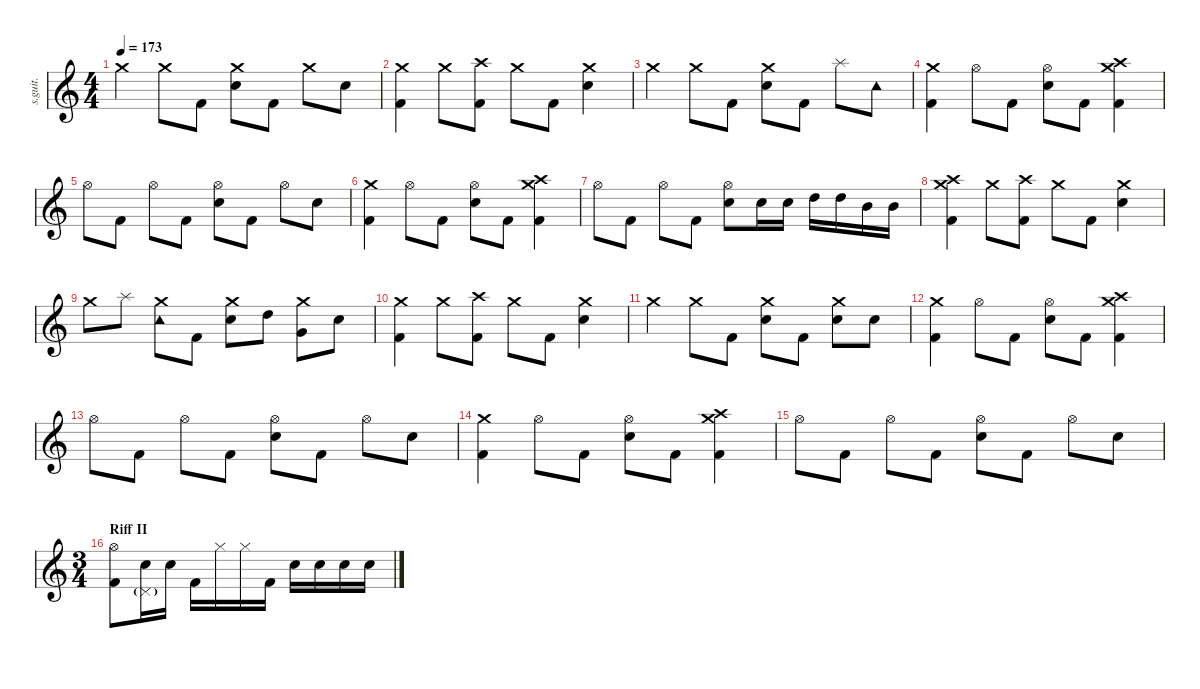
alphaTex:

\defaultSystemsLayout 4
\hideDynamics
\bracketExtendMode nobrackets
\track ("II" "s.guit.") {instrument percussion}
\staff {score}
\articulation defaults
\ts (4 4)
\tempo 173
\clef g2
\ks c "Crash medium (hit)".4{lyrics (0 "") lyrics (1 "") lyrics (2 "") lyrics (3 "") lyrics (4 "") dy mf} "Crash medium (hit)".8{lyrics (0 "") lyrics (1 "") lyrics (2 "") lyrics (3 "") lyrics (4 "")} "Kick (hit) 2".8{lyrics (0 "") lyrics (1 "") lyrics (2 "") lyrics (3 "") lyrics (4 "")}
("Crash medium (hit)" "Snare (hit) 2").8{lyrics (0 "") lyrics (1 "") lyrics (2 "") lyrics (3 "") lyrics (4 "")} "Kick (hit) 2".8{lyrics (0 "") lyrics (1 "") lyrics (2 "") lyrics (3 "") lyrics (4 "")} "Crash medium (hit)".8{lyrics (0 "") lyrics (1 "") lyrics (2 "") lyrics (3 "") lyrics (4 "")} "Snare (hit) 2".8{lyrics (0 "") lyrics (1 "") lyrics (2 "") lyrics (3 "") lyrics (4 "")} |
("Kick (hit) 2" "Crash medium (hit)").4{lyrics (0 "") lyrics (1 "") lyrics (2 "") lyrics (3 "") lyrics (4 "")} "Crash medium (hit)".8{lyrics (0 "") lyrics (1 "") lyrics (2 "") lyrics (3 "") lyrics (4 "")} ("Kick (hit) 2" "Crash high (hit)").8{lyrics (0 "") lyrics (1 "") lyrics (2 "") lyrics (3 "") lyrics (4 "")} "Crash medium (hit)".8{lyrics (0 "") lyrics (1 "") lyrics (2 "") lyrics (3 "") lyrics (4 "")} "Kick (hit) 2".8{lyrics (0 "") lyrics (1 "") lyrics (2 "") lyrics (3 "") lyrics (4 "")} ("Snare (hit) 2" "Crash medium (hit)").4{lyrics (0 "") lyrics (1 "") lyrics (2 "") lyrics (3 "") lyrics (4 "")} |
"Crash medium (hit)".4{lyrics (0 "") lyrics (1 "") lyrics (2 "") lyrics (3 "") lyrics (4 "")} "Crash medium (hit)".8{lyrics (0 "") lyrics (1 "") lyrics (2 "") lyrics (3 "") lyrics (4 "")} "Kick (hit) 2".8{lyrics (0 "") lyrics (1 "") lyrics (2 "") lyrics (3 "") lyrics (4 "")} ("Crash medium (hit)" "Snare (hit) 2").8{lyrics (0 "") lyrics (1 "") lyrics (2 "") lyrics (3 "") lyrics (4 "")} "Kick (hit) 2".8{lyrics (0 "") lyrics (1 "") lyrics (2 "") lyrics (3 "") lyrics (4 "")} "Splash (hit)".8{lyrics (0 "") lyrics (1 "") lyrics (2 "") lyrics (3 "") lyrics (4 "")} "Tambourine (hit)".8{lyrics (0 "") lyrics (1 "") lyrics (2 "") lyrics (3 "") lyrics (4 "")} |
("Kick (hit) 2" "Crash medium (hit)").4{lyrics (0 "") lyrics (1 "") lyrics (2 "") lyrics (3 "") lyrics (4 "")} "Hi-Hat (open)".8{lyrics (0 "") lyrics (1 "") lyrics (2 "") lyrics (3 "") lyrics (4 "")} "Kick (hit) 2".8{lyrics (0 "") lyrics (1 "") lyrics (2 "") lyrics (3 "") lyrics (4 "")} ("Snare (hit) 2" "Hi-Hat (open)").8{lyrics (0 "") lyrics (1 "") lyrics (2 "") lyrics (3 "") lyrics (4 "")} "Kick (hit) 2".8{lyrics (0 "") lyrics (1 "") lyrics (2 "") lyrics (3 "") lyrics (4 "")} ("Kick (hit) 2" "Crash high (hit)" "Crash medium (hit)").4{lyrics (0 "") lyrics (1 "") lyrics (2 "") lyrics (3 "") lyrics (4 "")} |
"Hi-Hat (open)".8{lyrics (0 "") lyrics (1 "") lyrics (2 "") lyrics (3 "") lyrics (4 "")} "Kick (hit) 2".8{lyrics (0 "") lyrics (1 "") lyrics (2 "") lyrics (3 "") lyrics (4 "")} "Hi-Hat (open)".8{lyrics (0 "") lyrics (1 "") lyrics (2 "") lyrics (3 "") lyrics (4 "")} "Kick (hit) 2".8{lyrics (0 "") lyrics (1 "") lyrics (2 "") lyrics (3 "") lyrics (4 "")} ("Hi-Hat (open)" "Snare (hit) 2").8{lyrics (0 "") lyrics (1 "") lyrics (2 "") lyrics (3 "") lyrics (4 "")} "Kick (hit) 2".8{lyrics (0 "") lyrics (1 "") lyrics (2 "") lyrics (3 "") lyrics (4 "")} "Hi-Hat (open)".8{lyrics (0 "") lyrics (1 "") lyrics (2 "") lyrics (3 "") lyrics (4 "")} "Snare (hit) 2".8{lyrics (0 "") lyrics (1 "") lyrics (2 "") lyrics (3 "") lyrics (4 "")} |
("Kick (hit) 2" "Crash medium (hit)").4{lyrics (0 "") lyrics (1 "") lyrics (2 "") lyrics (3 "") lyrics (4 "")} "Hi-Hat (open)".8{lyrics (0 "") lyrics (1 "") lyrics (2 "") lyrics (3 "") lyrics (4 "")} "Kick (hit) 2".8{lyrics (0 "") lyrics (1 "") lyrics (2 "") lyrics (3 "") lyrics (4 "")} ("Snare (hit) 2" "Hi-Hat (open)").8{lyrics (0 "") lyrics (1 "") lyrics (2 "") lyrics (3 "") lyrics (4 "")} "Kick (hit) 2".8{lyrics (0 "") lyrics (1 "") lyrics (2 "") lyrics (3 "") lyrics (4 "")} ("Kick (hit) 2" "Crash high (hit)" "Crash medium (hit)").4{lyrics (0 "") lyrics (1 "") lyrics (2 "") lyrics (3 "") lyrics (4 "")} |
"Hi-Hat (open)".8{lyrics (0 "") lyrics (1 "") lyrics (2 "") lyrics (3 "") lyrics (4 "")} "Kick (hit) 2".8{lyrics (0 "") lyrics (1 "") lyrics (2 "") lyrics (3 "") lyrics (4 "")} "Hi-Hat (open)".8{lyrics (0 "") lyrics (1 "") lyrics (2 "") lyrics (3 "") lyrics (4 "")} "Kick (hit) 2".8{lyrics (0 "") lyrics (1 "") lyrics (2 "") lyrics (3 "") lyrics (4 "")} ("Hi-Hat (open)" "Snare (hit) 2").8{lyrics (0 "") lyrics (1 "") lyrics (2 "") lyrics (3 "") lyrics (4 "")} "Snare (hit) 2".16{lyrics (0 "") lyrics (1 "") lyrics (2 "") lyrics (3 "") lyrics (4 "")} "Snare (hit) 2".16{lyrics (0 "") lyrics (1 "") lyrics (2 "") lyrics (3 "") lyrics (4 "")} "High Tom (hit)".16{lyrics (0 "") lyrics (1 "") lyrics (2 "") lyrics (3 "") lyrics (4 "")} "High Tom (hit)".16{lyrics (0 "") lyrics (1 "") lyrics (2 "") lyrics (3 "") lyrics (4 "")} "Mid Tom (hit)".16{lyrics (0 "") lyrics (1 "") lyrics (2 "") lyrics (3 "") lyrics (4 "")} "Mid Tom (hit)".16{lyrics (0 "") lyrics (1 "") lyrics (2 "") lyrics (3 "") lyrics (4 "")} |
("Kick (hit) 2" "Crash high (hit)" "Crash medium (hit)").4{lyrics (0 "") lyrics (1 "") lyrics (2 "") lyrics (3 "") lyrics (4 "")} "Crash medium (hit)".8{lyrics (0 "") lyrics (1 "") lyrics (2 "") lyrics (3 "") lyrics (4 "")} ("Kick (hit) 2" "Crash high (hit)").8{lyrics (0 "") lyrics (1 "") lyrics (2 "") lyrics (3 "") lyrics (4 "")} "Crash medium (hit)".8{lyrics (0 "") lyrics (1 "") lyrics (2 "") lyrics (3 "") lyrics (4 "")} "Kick (hit) 2".8{lyrics (0 "") lyrics (1 "") lyrics (2 "") lyrics (3 "") lyrics (4 "")} ("Snare (hit) 2" "Crash medium (hit)").4{lyrics (0 "") lyrics (1 "") lyrics (2 "") lyrics (3 "") lyrics (4 "")} |
"Crash medium (hit)".8{lyrics (0 "") lyrics (1 "") lyrics (2 "") lyrics (3 "") lyrics (4 "")} "Splash (hit)".8{lyrics (0 "") lyrics (1 "") lyrics (2 "") lyrics (3 "") lyrics (4 "")} ("Crash medium (hit)" "Tambourine (hit)").8{lyrics (0 "") lyrics (1 "") lyrics (2 "") lyrics (3 "") lyrics (4 "")} "Kick (hit) 2".8{lyrics (0 "") lyrics (1 "") lyrics (2 "") lyrics (3 "") lyrics (4 "")} ("Crash medium (hit)" "Snare (hit) 2").8{lyrics (0 "") lyrics (1 "") lyrics (2 "") lyrics (3 "") lyrics (4 "")} "High Tom (hit)".8{lyrics (0 "") lyrics (1 "") lyrics (2 "") lyrics (3 "") lyrics (4 "")} ("Crash medium (hit)" "Very Low Tom (hit)").8{lyrics (0 "") lyrics (1 "") lyrics (2 "") lyrics (3 "") lyrics (4 "")} "Snare (hit) 2".8{lyrics (0 "") lyrics (1 "") lyrics (2 "") lyrics (3 "") lyrics (4 "")} |
("Kick (hit) 2" "Crash medium (hit)").4{lyrics (0 "") lyrics (1 "") lyrics (2 "") lyrics (3 "") lyrics (4 "")} "Crash medium (hit)".8{lyrics (0 "") lyrics (1 "") lyrics (2 "") lyrics (3 "") lyrics (4 "")} ("Kick (hit) 2" "Crash high (hit)").8{lyrics (0 "") lyrics (1 "") lyrics (2 "") lyrics (3 "") lyrics (4 "")} "Crash medium (hit)".8{lyrics (0 "") lyrics (1 "") lyrics (2 "") lyrics (3 "") lyrics (4 "")} "Kick (hit) 2".8{lyrics (0 "") lyrics (1 "") lyrics (2 "") lyrics (3 "") lyrics (4 "")} ("Snare (hit) 2" "Crash medium (hit)").4{lyrics (0 "") lyrics (1 "") lyrics (2 "") lyrics (3 "") lyrics (4 "")} |
"Crash medium (hit)".4{lyrics (0 "") lyrics (1 "") lyrics (2 "") lyrics (3 "") lyrics (4 "")} "Crash medium (hit)".8{lyrics (0 "") lyrics (1 "") lyrics (2 "") lyrics (3 "") lyrics (4 "")} "Kick (hit) 2".8{lyrics (0 "") lyrics (1 "") lyrics (2 "") lyrics (3 "") lyrics (4 "")} ("Crash medium (hit)" "Snare (hit) 2").8{lyrics (0 "") lyrics (1 "") lyrics (2 "") lyrics (3 "") lyrics (4 "")} "Kick (hit) 2".8{lyrics (0 "") lyrics (1 "") lyrics (2 "") lyrics (3 "") lyrics (4 "")} ("Snare (hit) 2" "Crash medium (hit)").8{lyrics (0 "") lyrics (1 "") lyrics (2 "") lyrics (3 "") lyrics (4 "")} "Snare (hit) 2".8{lyrics (0 "") lyrics (1 "") lyrics (2 "") lyrics (3 "") lyrics (4 "")} |
("Kick (hit) 2" "Crash medium (hit)").4{lyrics (0 "") lyrics (1 "") lyrics (2 "") lyrics (3 "") lyrics (4 "")} "Hi-Hat (open)".8{lyrics (0 "") lyrics (1 "") lyrics (2 "") lyrics (3 "") lyrics (4 "")} "Kick (hit) 2".8{lyrics (0 "") lyrics (1 "") lyrics (2 "") lyrics (3 "") lyrics (4 "")} ("Snare (hit) 2" "Hi-Hat (open)").8{lyrics (0 "") lyrics (1 "") lyrics (2 "") lyrics (3 "") lyrics (4 "")} "Kick (hit) 2".8{lyrics (0 "") lyrics (1 "") lyrics (2 "") lyrics (3 "") lyrics (4 "")} ("Kick (hit) 2" "Crash high (hit)" "Crash medium (hit)").4{lyrics (0 "") lyrics (1 "") lyrics (2 "") lyrics (3 "") lyrics (4 "")} |
"Hi-Hat (open)".8{lyrics (0 "") lyrics (1 "") lyrics (2 "") lyrics (3 "") lyrics (4 "")} "Kick (hit) 2".8{lyrics (0 "") lyrics (1 "") lyrics (2 "") lyrics (3 "") lyrics (4 "")} "Hi-Hat (open)".8{lyrics (0 "") lyrics (1 "") lyrics (2 "") lyrics (3 "") lyrics (4 "")} "Kick (hit) 2".8{lyrics (0 "") lyrics (1 "") lyrics (2 "") lyrics (3 "") lyrics (4 "")} ("Hi-Hat (open)" "Snare (hit) 2").8{lyrics (0 "") lyrics (1 "") lyrics (2 "") lyrics (3 "") lyrics (4 "")} "Kick (hit) 2".8{lyrics (0 "") lyrics (1 "") lyrics (2 "") lyrics (3 "") lyrics (4 "")} "Hi-Hat (open)".8{lyrics (0 "") lyrics (1 "") lyrics (2 "") lyrics (3 "") lyrics (4 "")} "Snare (hit) 2".8{lyrics (0 "") lyrics (1 "") lyrics (2 "") lyrics (3 "") lyrics (4 "")} |
("Kick (hit) 2" "Crash medium (hit)").4{lyrics (0 "") lyrics (1 "") lyrics (2 "") lyrics (3 "") lyrics (4 "")} "Hi-Hat (open)".8{lyrics (0 "") lyrics (1 "") lyrics (2 "") lyrics (3 "") lyrics (4 "")} "Kick (hit) 2".8{lyrics (0 "") lyrics (1 "") lyrics (2 "") lyrics (3 "") lyrics (4 "")} ("Snare (hit) 2" "Hi-Hat (open)").8{lyrics (0 "") lyrics (1 "") lyrics (2 "") lyrics (3 "") lyrics (4 "")} "Kick (hit) 2".8{lyrics (0 "") lyrics (1 "") lyrics (2 "") lyrics (3 "") lyrics (4 "")} ("Kick (hit) 2" "Crash high (hit)" "Crash medium (hit)").4{lyrics (0 "") lyrics (1 "") lyrics (2 "") lyrics (3 "") lyrics (4 "")} |
"Hi-Hat (open)".8{lyrics (0 "") lyrics (1 "") lyrics (2 "") lyrics (3 "") lyrics (4 "")} "Kick (hit) 2".8{lyrics (0 "") lyrics (1 "") lyrics (2 "") lyrics (3 "") lyrics (4 "")} "Hi-Hat (open)".8{lyrics (0 "") lyrics (1 "") lyrics (2 "") lyrics (3 "") lyrics (4 "")} "Kick (hit) 2".8{lyrics (0 "") lyrics (1 "") lyrics (2 "") lyrics (3 "") lyrics (4 "")} ("Snare (hit) 2" "Hi-Hat (open)").8{lyrics (0 "") lyrics (1 "") lyrics (2 "") lyrics (3 "") lyrics (4 "")} "Kick (hit) 2".8{lyrics (0 "") lyrics (1 "") lyrics (2 "") lyrics (3 "") lyrics (4 "")} "Hi-Hat (open)".8{lyrics (0 "") lyrics (1 "") lyrics (2 "") lyrics (3 "") lyrics (4 "")} "Snare (hit) 2".8{lyrics (0 "") lyrics (1 "") lyrics (2 "") lyrics (3 "") lyrics (4 "")} |
\ts (3 4)
\beaming (8 2 2 2 2)
\section ("" "Riff II")
("Kick (hit) 2" "Hi-Hat (open)").8{lyrics (0 "") lyrics (1 "") lyrics (2 "") lyrics (3 "") lyrics (4 "")} ("Snare (hit) 2" "Pedal Hi-Hat (hit)"{g}).16{lyrics (0 "") lyrics (1 "") lyrics (2 "") lyrics (3 "") lyrics (4 "")} "Snare (hit) 2".16{lyrics (0 "") lyrics (1 "") lyrics (2 "") lyrics (3 "") lyrics (4 "")} "Kick (hit) 2".16{lyrics (0 "") lyrics (1 "") lyrics (2 "") lyrics (3 "") lyrics (4 "")} "Hi-Hat (closed)".16{lyrics (0 "") lyrics (1 "") lyrics (2 "") lyrics (3 "") lyrics (4 "")} "Hi-Hat (closed)".16{lyrics (0 "") lyrics (1 "") lyrics (2 "") lyrics (3 "") lyrics (4 "")} "Kick (hit) 2".16{lyrics (0 "") lyrics (1 "") lyrics (2 "") lyrics (3 "") lyrics (4 "")} "Snare (hit) 2".16{lyrics (0 "") lyrics (1 "") lyrics (2 "") lyrics (3 "") lyrics (4 "")} "Snare (hit) 2".16{lyrics (0 "") lyrics (1 "") lyrics (2 "") lyrics (3 "") lyrics (4 "")} "Snare (hit) 2".16{lyrics (0 "") lyrics (1 "") lyrics (2 "") lyrics (3 "") lyrics (4 "")} "Snare (hit) 2".16{lyrics (0 "") lyrics (1 "") lyrics (2 "") lyrics (3 "") lyrics (4 "")}
